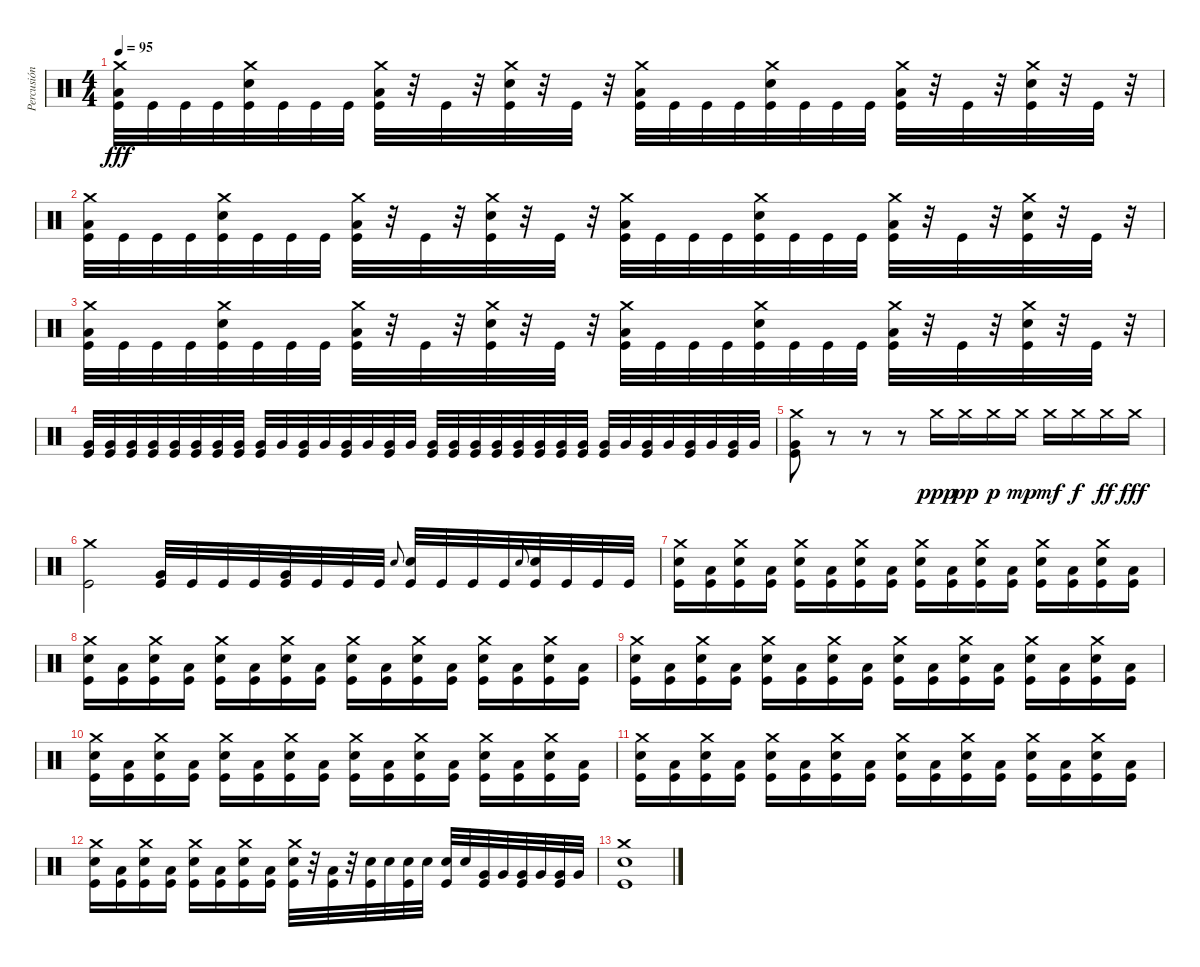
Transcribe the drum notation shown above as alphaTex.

\track ("Percusión" "Percusión") {instrument percussion}
\staff {score}
\articulation defaults
\ts (4 4)
\tempo 95
\clef neutral
\ks c
("Crash medium (hit)" "Low Floor Tom (hit)" "Kick (hit)").32{dy fff} "Kick (hit)".32 "Kick (hit)".32 "Kick (hit)".32 ("Crash medium (hit)" "Snare (hit) 2" "Kick (hit)").32 "Kick (hit)".32 "Kick (hit)".32 "Kick (hit)".32 ("Crash medium (hit)" "Low Floor Tom (hit)" "Kick (hit)").32 r.32 "Kick (hit)".32 r.32 ("Crash medium (hit)" "Snare (hit) 2" "Kick (hit)").32 r.32 "Kick (hit)".32 r.32 ("Crash medium (hit)" "Low Floor Tom (hit)" "Kick (hit)").32 "Kick (hit)".32 "Kick (hit)".32 "Kick (hit)".32 ("Crash medium (hit)" "Snare (hit) 2" "Kick (hit)").32 "Kick (hit)".32 "Kick (hit)".32 "Kick (hit)".32 ("Crash medium (hit)" "Low Floor Tom (hit)" "Kick (hit)").32 r.32 "Kick (hit)".32 r.32 ("Crash medium (hit)" "Snare (hit) 2" "Kick (hit)").32 r.32 "Kick (hit)".32 r.32 |
("Crash medium (hit)" "Low Floor Tom (hit)" "Kick (hit)").32 "Kick (hit)".32 "Kick (hit)".32 "Kick (hit)".32 ("Crash medium (hit)" "Snare (hit) 2" "Kick (hit)").32 "Kick (hit)".32 "Kick (hit)".32 "Kick (hit)".32 ("Crash medium (hit)" "Low Floor Tom (hit)" "Kick (hit)").32 r.32 "Kick (hit)".32 r.32 ("Crash medium (hit)" "Snare (hit) 2" "Kick (hit)").32 r.32 "Kick (hit)".32 r.32 ("Crash medium (hit)" "Low Floor Tom (hit)" "Kick (hit)").32 "Kick (hit)".32 "Kick (hit)".32 "Kick (hit)".32 ("Crash medium (hit)" "Snare (hit) 2" "Kick (hit)").32 "Kick (hit)".32 "Kick (hit)".32 "Kick (hit)".32 ("Crash medium (hit)" "Low Floor Tom (hit)" "Kick (hit)").32 r.32 "Kick (hit)".32 r.32 ("Crash medium (hit)" "Snare (hit) 2" "Kick (hit)").32 r.32 "Kick (hit)".32 r.32 |
("Crash medium (hit)" "Low Floor Tom (hit)" "Kick (hit)").32 "Kick (hit)".32 "Kick (hit)".32 "Kick (hit)".32 ("Crash medium (hit)" "Snare (hit) 2" "Kick (hit)").32 "Kick (hit)".32 "Kick (hit)".32 "Kick (hit)".32 ("Crash medium (hit)" "Low Floor Tom (hit)" "Kick (hit)").32 r.32 "Kick (hit)".32 r.32 ("Crash medium (hit)" "Snare (hit) 2" "Kick (hit)").32 r.32 "Kick (hit)".32 r.32 ("Crash medium (hit)" "Low Floor Tom (hit)" "Kick (hit)").32 "Kick (hit)".32 "Kick (hit)".32 "Kick (hit)".32 ("Crash medium (hit)" "Snare (hit) 2" "Kick (hit)").32 "Kick (hit)".32 "Kick (hit)".32 "Kick (hit)".32 ("Crash medium (hit)" "Low Floor Tom (hit)" "Kick (hit)").32 r.32 "Kick (hit)".32 r.32 ("Crash medium (hit)" "Snare (hit) 2" "Kick (hit)").32 r.32 "Kick (hit)".32 r.32 |
("Very Low Tom (hit)" "Kick (hit)").32 ("Very Low Tom (hit)" "Kick (hit)").32 ("Very Low Tom (hit)" "Kick (hit)").32 ("Very Low Tom (hit)" "Kick (hit)").32 ("Very Low Tom (hit)" "Kick (hit)").32 ("Very Low Tom (hit)" "Kick (hit)").32 ("Very Low Tom (hit)" "Kick (hit)").32 ("Very Low Tom (hit)" "Kick (hit)").32 ("Very Low Tom (hit)" "Kick (hit)").32 "Very Low Tom (hit)".32 ("Very Low Tom (hit)" "Kick (hit)").32 "Very Low Tom (hit)".32 ("Very Low Tom (hit)" "Kick (hit)").32 "Very Low Tom (hit)".32 ("Very Low Tom (hit)" "Kick (hit)").32 "Very Low Tom (hit)".32 ("Very Low Tom (hit)" "Kick (hit)").32 ("Very Low Tom (hit)" "Kick (hit)").32 ("Very Low Tom (hit)" "Kick (hit)").32 ("Very Low Tom (hit)" "Kick (hit)").32 ("Very Low Tom (hit)" "Kick (hit)").32 ("Very Low Tom (hit)" "Kick (hit)").32 ("Very Low Tom (hit)" "Kick (hit)").32 ("Very Low Tom (hit)" "Kick (hit)").32 ("Very Low Tom (hit)" "Kick (hit)").32 "Very Low Tom (hit)".32 ("Very Low Tom (hit)" "Kick (hit)").32 "Very Low Tom (hit)".32 ("Very Low Tom (hit)" "Kick (hit)").32 "Very Low Tom (hit)".32 ("Very Low Tom (hit)" "Kick (hit)").32 "Very Low Tom (hit)".32 |
("Crash medium (hit)" "Very Low Tom (hit)" "Kick (hit)").8 r.8 r.8 r.8 "Crash medium (hit)".16{dy ppp} "Crash medium (hit)".16{dy pp} "Crash medium (hit)".16{dy p} "Crash medium (hit)".16{dy mp} "Crash medium (hit)".16{dy mf} "Crash medium (hit)".16{dy f} "Crash medium (hit)".16{dy ff} "Crash medium (hit)".16{dy fff} |
("Crash medium (hit)" "Kick (hit)").2 ("Very Low Tom (hit)" "Kick (hit)").32 "Kick (hit)".32 "Kick (hit)".32 "Kick (hit)".32 ("Very Low Tom (hit)" "Kick (hit)").32 "Kick (hit)".32 "Kick (hit)".32 "Kick (hit)".32 "Snare (hit) 2".8{gr onbeat} ("Snare (hit) 2" "Kick (hit)").32 "Kick (hit)".32 "Kick (hit)".32 "Kick (hit)".32 "Snare (hit) 2".8{gr onbeat} ("Snare (hit) 2" "Kick (hit)").32 "Kick (hit)".32 "Kick (hit)".32 "Kick (hit)".32 |
("Crash medium (hit)" "Snare (hit) 2" "Kick (hit)").16 ("Low Floor Tom (hit)" "Kick (hit)").16 ("Crash medium (hit)" "Snare (hit) 2" "Kick (hit)").16 ("Low Floor Tom (hit)" "Kick (hit)").16 ("Crash medium (hit)" "Snare (hit) 2" "Kick (hit)").16 ("Low Floor Tom (hit)" "Kick (hit)").16 ("Crash medium (hit)" "Snare (hit) 2" "Kick (hit)").16 ("Low Floor Tom (hit)" "Kick (hit)").16 ("Crash medium (hit)" "Snare (hit) 2" "Kick (hit)").16 ("Low Floor Tom (hit)" "Kick (hit)").16 ("Crash medium (hit)" "Snare (hit) 2" "Kick (hit)").16 ("Low Floor Tom (hit)" "Kick (hit)").16 ("Crash medium (hit)" "Snare (hit) 2" "Kick (hit)").16 ("Low Floor Tom (hit)" "Kick (hit)").16 ("Crash medium (hit)" "Snare (hit) 2" "Kick (hit)").16 ("Low Floor Tom (hit)" "Kick (hit)").16 |
("Crash medium (hit)" "Snare (hit) 2" "Kick (hit)").16 ("Low Floor Tom (hit)" "Kick (hit)").16 ("Crash medium (hit)" "Snare (hit) 2" "Kick (hit)").16 ("Low Floor Tom (hit)" "Kick (hit)").16 ("Crash medium (hit)" "Snare (hit) 2" "Kick (hit)").16 ("Low Floor Tom (hit)" "Kick (hit)").16 ("Crash medium (hit)" "Snare (hit) 2" "Kick (hit)").16 ("Low Floor Tom (hit)" "Kick (hit)").16 ("Crash medium (hit)" "Snare (hit) 2" "Kick (hit)").16 ("Low Floor Tom (hit)" "Kick (hit)").16 ("Crash medium (hit)" "Snare (hit) 2" "Kick (hit)").16 ("Low Floor Tom (hit)" "Kick (hit)").16 ("Crash medium (hit)" "Snare (hit) 2" "Kick (hit)").16 ("Low Floor Tom (hit)" "Kick (hit)").16 ("Crash medium (hit)" "Snare (hit) 2" "Kick (hit)").16 ("Low Floor Tom (hit)" "Kick (hit)").16 |
("Crash medium (hit)" "Snare (hit) 2" "Kick (hit)").16 ("Low Floor Tom (hit)" "Kick (hit)").16 ("Crash medium (hit)" "Snare (hit) 2" "Kick (hit)").16 ("Low Floor Tom (hit)" "Kick (hit)").16 ("Crash medium (hit)" "Snare (hit) 2" "Kick (hit)").16 ("Low Floor Tom (hit)" "Kick (hit)").16 ("Crash medium (hit)" "Snare (hit) 2" "Kick (hit)").16 ("Low Floor Tom (hit)" "Kick (hit)").16 ("Crash medium (hit)" "Snare (hit) 2" "Kick (hit)").16 ("Low Floor Tom (hit)" "Kick (hit)").16 ("Crash medium (hit)" "Snare (hit) 2" "Kick (hit)").16 ("Low Floor Tom (hit)" "Kick (hit)").16 ("Crash medium (hit)" "Snare (hit) 2" "Kick (hit)").16 ("Low Floor Tom (hit)" "Kick (hit)").16 ("Crash medium (hit)" "Snare (hit) 2" "Kick (hit)").16 ("Low Floor Tom (hit)" "Kick (hit)").16 |
("Crash medium (hit)" "Snare (hit) 2" "Kick (hit)").16 ("Low Floor Tom (hit)" "Kick (hit)").16 ("Crash medium (hit)" "Snare (hit) 2" "Kick (hit)").16 ("Low Floor Tom (hit)" "Kick (hit)").16 ("Crash medium (hit)" "Snare (hit) 2" "Kick (hit)").16 ("Low Floor Tom (hit)" "Kick (hit)").16 ("Crash medium (hit)" "Snare (hit) 2" "Kick (hit)").16 ("Low Floor Tom (hit)" "Kick (hit)").16 ("Crash medium (hit)" "Snare (hit) 2" "Kick (hit)").16 ("Low Floor Tom (hit)" "Kick (hit)").16 ("Crash medium (hit)" "Snare (hit) 2" "Kick (hit)").16 ("Low Floor Tom (hit)" "Kick (hit)").16 ("Crash medium (hit)" "Snare (hit) 2" "Kick (hit)").16 ("Low Floor Tom (hit)" "Kick (hit)").16 ("Crash medium (hit)" "Snare (hit) 2" "Kick (hit)").16 ("Low Floor Tom (hit)" "Kick (hit)").16 |
("Crash medium (hit)" "Snare (hit) 2" "Kick (hit)").16 ("Low Floor Tom (hit)" "Kick (hit)").16 ("Crash medium (hit)" "Snare (hit) 2" "Kick (hit)").16 ("Low Floor Tom (hit)" "Kick (hit)").16 ("Crash medium (hit)" "Snare (hit) 2" "Kick (hit)").16 ("Low Floor Tom (hit)" "Kick (hit)").16 ("Crash medium (hit)" "Snare (hit) 2" "Kick (hit)").16 ("Low Floor Tom (hit)" "Kick (hit)").16 ("Crash medium (hit)" "Snare (hit) 2" "Kick (hit)").16 ("Low Floor Tom (hit)" "Kick (hit)").16 ("Crash medium (hit)" "Snare (hit) 2" "Kick (hit)").16 ("Low Floor Tom (hit)" "Kick (hit)").16 ("Crash medium (hit)" "Snare (hit) 2" "Kick (hit)").16 ("Low Floor Tom (hit)" "Kick (hit)").16 ("Crash medium (hit)" "Snare (hit) 2" "Kick (hit)").16 ("Low Floor Tom (hit)" "Kick (hit)").16 |
("Crash medium (hit)" "Snare (hit) 2" "Kick (hit)").16 ("Low Floor Tom (hit)" "Kick (hit)").16 ("Crash medium (hit)" "Snare (hit) 2" "Kick (hit)").16 ("Low Floor Tom (hit)" "Kick (hit)").16 ("Crash medium (hit)" "Snare (hit) 2" "Kick (hit)").16 ("Low Floor Tom (hit)" "Kick (hit)").16 ("Crash medium (hit)" "Snare (hit) 2" "Kick (hit)").16 ("Low Floor Tom (hit)" "Kick (hit)").16 ("Crash medium (hit)" "Snare (hit) 2" "Kick (hit)").32 r.32 ("Low Floor Tom (hit)" "Kick (hit)").32 r.32 ("Snare (hit) 2" "Kick (hit)").32 "Snare (hit) 2".32 ("Snare (hit) 2" "Kick (hit)").32 "Snare (hit) 2".32 ("Snare (hit) 2" "Kick (hit)").32 "Snare (hit) 2".32 ("Very Low Tom (hit)" "Kick (hit)").32 "Very Low Tom (hit)".32 ("Very Low Tom (hit)" "Kick (hit)").32 "Very Low Tom (hit)".32 ("Very Low Tom (hit)" "Kick (hit)").32 "Very Low Tom (hit)".32 |
("Crash medium (hit)" "Snare (hit) 2" "Kick (hit)").1
